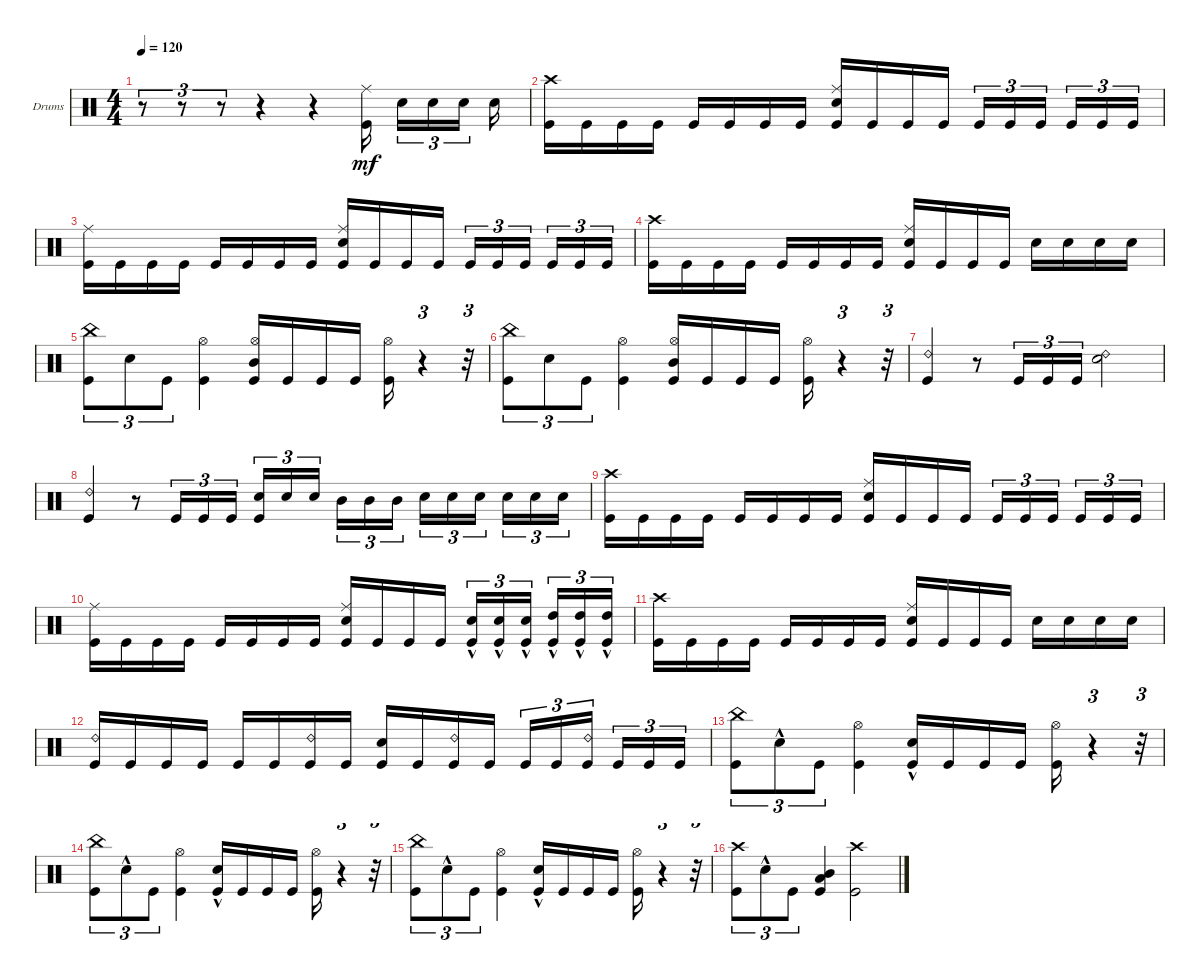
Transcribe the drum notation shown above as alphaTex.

\defaultSystemsLayout 4
\bracketExtendMode groupsimilarinstruments
\firstSystemTrackNameOrientation horizontal
\otherSystemsTrackNameOrientation horizontal
\track ("Drumkit" "Drums") {instrument percussion}
\staff {score}
\articulation defaults
\ts (4 4)
\tempo 120
\clef neutral
\ks c
r.8{tu (3 2) dy mf} r.8{tu (3 2)} r.8{tu (3 2)} r.4 r.4 ("Kick (hit)" "Ride (middle)").16 "Snare (hit) 2".16{tu (3 2)} "Snare (hit) 2".16{tu (3 2)} "Snare (hit) 2".16{tu (3 2)} "Snare (hit) 2".16 |
("Crash high (hit)" "Kick (hit)").16 "Kick (hit)".16 "Kick (hit)".16 "Kick (hit)".16 "Kick (hit)".16 "Kick (hit)".16 "Kick (hit)".16 "Kick (hit)".16 ("Kick (hit)" "Snare (hit) 2" "Ride (middle)").16 "Kick (hit)".16 "Kick (hit)".16 "Kick (hit)".16 "Kick (hit)".16{tu (3 2)} "Kick (hit)".16{tu (3 2)} "Kick (hit)".16{tu (3 2)} "Kick (hit)".16{tu (3 2)} "Kick (hit)".16{tu (3 2)} "Kick (hit)".16{tu (3 2)} |
("Kick (hit)" "Ride (middle)").16 "Kick (hit)".16 "Kick (hit)".16 "Kick (hit)".16 "Kick (hit)".16 "Kick (hit)".16 "Kick (hit)".16 "Kick (hit)".16 ("Kick (hit)" "Snare (hit) 2" "Ride (middle)").16 "Kick (hit)".16 "Kick (hit)".16 "Kick (hit)".16 "Kick (hit)".16{tu (3 2)} "Kick (hit)".16{tu (3 2)} "Kick (hit)".16{tu (3 2)} "Kick (hit)".16{tu (3 2)} "Kick (hit)".16{tu (3 2)} "Kick (hit)".16{tu (3 2)} |
("Crash high (hit)" "Kick (hit)").16 "Kick (hit)".16 "Kick (hit)".16 "Kick (hit)".16 "Kick (hit)".16 "Kick (hit)".16 "Kick (hit)".16 "Kick (hit)".16 ("Kick (hit)" "Snare (hit) 2" "Ride (middle)").16 "Kick (hit)".16 "Kick (hit)".16 "Kick (hit)".16 "Snare (hit) 2".16 "Snare (hit) 2".16 "Snare (hit) 2".16 "Snare (hit) 2".16 |
("Kick (hit)" "China (hit)").8{tu (3 2)} "Snare (hit) 2".8{tu (3 2)} "Kick (hit)".8{tu (3 2)} ("Kick (hit)" "Hi-Hat (open)").4 ("Mid Tom (hit)" "Hi-Hat (open)" "Kick (hit)").16 "Kick (hit)".16 "Kick (hit)".16 "Kick (hit)".16 ("Kick (hit)" "Hi-Hat (open)").16 r.4{tu (3 2)} r.32{tu (3 2)} |
("Kick (hit)" "China (hit)").8{tu (3 2)} "Snare (hit) 2".8{tu (3 2)} "Kick (hit)".8{tu (3 2)} ("Kick (hit)" "Hi-Hat (open)").4 ("Mid Tom (hit)" "Hi-Hat (open)" "Kick (hit)").16 "Kick (hit)".16 "Kick (hit)".16 "Kick (hit)".16 ("Kick (hit)" "Hi-Hat (open)").16 r.4{tu (3 2)} r.32{tu (3 2)} |
("Ride (bell) 2" "Kick (hit)").4 r.8 "Kick (hit)".16{tu (3 2)} "Kick (hit)".16{tu (3 2)} "Kick (hit)".16{tu (3 2)} ("Snare (hit) 2" "Ride (bell) 2").2 |
("Ride (bell) 2" "Kick (hit)").4 r.8 "Kick (hit)".16{tu (3 2)} "Kick (hit)".16{tu (3 2)} "Kick (hit)".16{tu (3 2)} ("Snare (hit) 2" "Kick (hit)").16{tu (3 2)} "Snare (hit) 2".16{tu (3 2)} "Snare (hit) 2".16{tu (3 2)} "Mid Tom (hit)".16{tu (3 2)} "Mid Tom (hit)".16{tu (3 2)} "Mid Tom (hit)".16{tu (3 2)} "Snare (hit) 2".16{tu (3 2)} "Snare (hit) 2".16{tu (3 2)} "Snare (hit) 2".16{tu (3 2)} "Snare (hit) 2".16{tu (3 2)} "Snare (hit) 2".16{tu (3 2)} "Snare (hit) 2".16{tu (3 2)} |
("Crash high (hit)" "Kick (hit)").16 "Kick (hit)".16 "Kick (hit)".16 "Kick (hit)".16 "Kick (hit)".16 "Kick (hit)".16 "Kick (hit)".16 "Kick (hit)".16 ("Kick (hit)" "Snare (hit) 2" "Ride (middle)").16 "Kick (hit)".16 "Kick (hit)".16 "Kick (hit)".16 "Kick (hit)".16{tu (3 2)} "Kick (hit)".16{tu (3 2)} "Kick (hit)".16{tu (3 2)} "Kick (hit)".16{tu (3 2)} "Kick (hit)".16{tu (3 2)} "Kick (hit)".16{tu (3 2)} |
("Kick (hit)" "Ride (middle)").16 "Kick (hit)".16 "Kick (hit)".16 "Kick (hit)".16 "Kick (hit)".16 "Kick (hit)".16 "Kick (hit)".16 "Kick (hit)".16 ("Kick (hit)" "Snare (hit) 2" "Ride (middle)").16 "Kick (hit)".16 "Kick (hit)".16 "Kick (hit)".16 ("Kick (hit)" "Snare (hit) 2"{hac}).16{tu (3 2)} ("Kick (hit)" "Snare (hit) 2"{hac}).16{tu (3 2)} ("Kick (hit)" "Snare (hit) 2"{hac}).16{tu (3 2)} ("Kick (hit)" "High Tom (hit)"{hac}).16{tu (3 2)} ("Kick (hit)" "High Tom (hit)"{hac}).16{tu (3 2)} ("Kick (hit)" "High Tom (hit)"{hac}).16{tu (3 2)} |
("Crash high (hit)" "Kick (hit)").16 "Kick (hit)".16 "Kick (hit)".16 "Kick (hit)".16 "Kick (hit)".16 "Kick (hit)".16 "Kick (hit)".16 "Kick (hit)".16 ("Kick (hit)" "Snare (hit) 2" "Ride (middle)").16 "Kick (hit)".16 "Kick (hit)".16 "Kick (hit)".16 "Snare (hit) 2".16 "Snare (hit) 2".16 "Snare (hit) 2".16 "Snare (hit) 2".16 |
("Kick (hit)" "Ride (bell) 2").16 "Kick (hit)".16 "Kick (hit)".16 "Kick (hit)".16 "Kick (hit)".16 "Kick (hit)".16 ("Kick (hit)" "Ride (bell) 2").16 "Kick (hit)".16 ("Kick (hit)" "Snare (hit) 2").16 "Kick (hit)".16 ("Kick (hit)" "Ride (bell) 2").16 "Kick (hit)".16 "Kick (hit)".16{tu (3 2)} "Kick (hit)".16{tu (3 2)} ("Kick (hit)" "Ride (bell) 2").16{tu (3 2)} "Kick (hit)".16{tu (3 2)} "Kick (hit)".16{tu (3 2)} "Kick (hit)".16{tu (3 2)} |
("Kick (hit)" "China (hit)").8{tu (3 2)} "Snare (hit) 2"{hac}.8{tu (3 2)} "Kick (hit)".8{tu (3 2)} ("Kick (hit)" "Hi-Hat (open)").4 ("Kick (hit)" "Snare (hit) 2"{hac}).16 "Kick (hit)".16 "Kick (hit)".16 "Kick (hit)".16 ("Kick (hit)" "Hi-Hat (open)").16 r.4{tu (3 2)} r.32{tu (3 2)} |
("Kick (hit)" "China (hit)").8{tu (3 2)} "Snare (hit) 2"{hac}.8{tu (3 2)} "Kick (hit)".8{tu (3 2)} ("Kick (hit)" "Hi-Hat (open)").4 ("Kick (hit)" "Snare (hit) 2"{hac}).16 "Kick (hit)".16 "Kick (hit)".16 "Kick (hit)".16 ("Kick (hit)" "Hi-Hat (open)").16 r.4{tu (3 2)} r.32{tu (3 2)} |
("Kick (hit)" "China (hit)").8{tu (3 2)} "Snare (hit) 2"{hac}.8{tu (3 2)} "Kick (hit)".8{tu (3 2)} ("Kick (hit)" "Hi-Hat (open)").4 ("Kick (hit)" "Snare (hit) 2"{hac}).16 "Kick (hit)".16 "Kick (hit)".16 "Kick (hit)".16 ("Kick (hit)" "Hi-Hat (open)").16 r.4{tu (3 2)} r.32{tu (3 2)} |
("Crash high (hit)" "Kick (hit)").8{tu (3 2)} "Snare (hit) 2"{hac}.8{tu (3 2)} "Kick (hit)".8{tu (3 2)} ("Kick (hit)" "Low Tom (hit)" "Mid Tom (hit)").4 ("Kick (hit)" "Crash high (hit)").2
